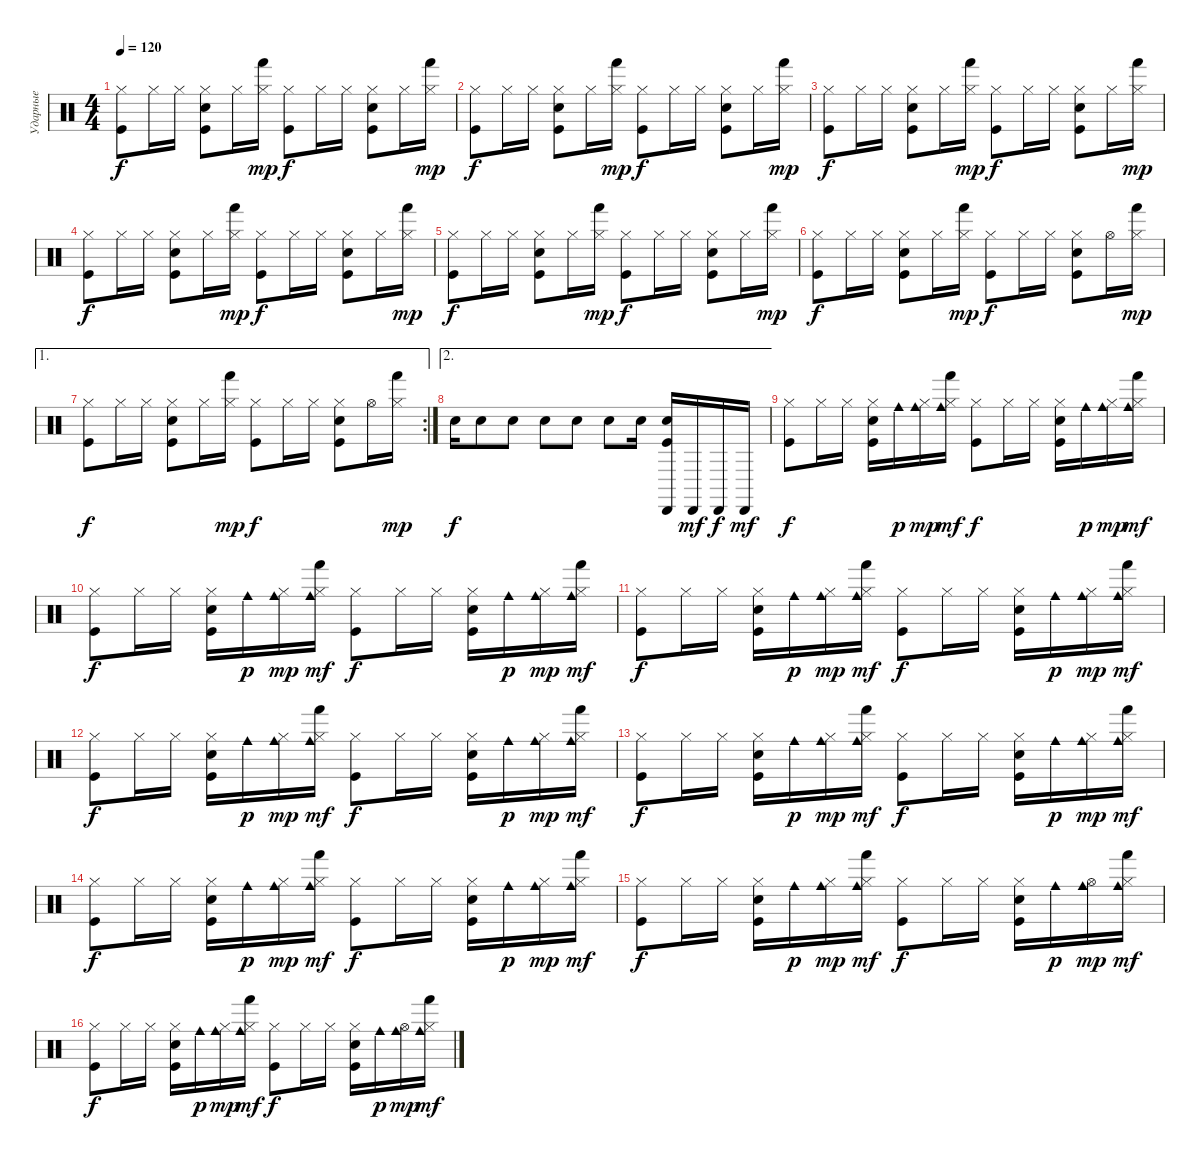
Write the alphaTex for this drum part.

\track ("Ударные" "Ударные") {instrument percussion}
\staff {score}
\articulation defaults
\ts (4 4)
\tempo 120
\clef neutral
\ks c
("Hi-Hat (closed)" "Kick (hit)").8{dy f} "Hi-Hat (closed)".16 "Hi-Hat (closed)".16 ("Hi-Hat (closed)" "Snare (hit) 2" "Kick (hit)").8 "Hi-Hat (closed)".16 ("Hi-Hat (closed)" "Hand (hit)").16{dy mp} ("Hi-Hat (closed)" "Kick (hit)").8{dy f} "Hi-Hat (closed)".16 "Hi-Hat (closed)".16 ("Hi-Hat (closed)" "Snare (hit) 2" "Kick (hit)").8 "Hi-Hat (closed)".16 ("Hi-Hat (closed)" "Hand (hit)").16{dy mp} |
("Hi-Hat (closed)" "Kick (hit)").8{dy f} "Hi-Hat (closed)".16 "Hi-Hat (closed)".16 ("Hi-Hat (closed)" "Snare (hit) 2" "Kick (hit)").8 "Hi-Hat (closed)".16 ("Hi-Hat (closed)" "Hand (hit)").16{dy mp} ("Hi-Hat (closed)" "Kick (hit)").8{dy f} "Hi-Hat (closed)".16 "Hi-Hat (closed)".16 ("Hi-Hat (closed)" "Snare (hit) 2" "Kick (hit)").8 "Hi-Hat (closed)".16 ("Hi-Hat (closed)" "Hand (hit)").16{dy mp} |
("Hi-Hat (closed)" "Kick (hit)").8{dy f} "Hi-Hat (closed)".16 "Hi-Hat (closed)".16 ("Hi-Hat (closed)" "Snare (hit) 2" "Kick (hit)").8 "Hi-Hat (closed)".16 ("Hi-Hat (closed)" "Hand (hit)").16{dy mp} ("Hi-Hat (closed)" "Kick (hit)").8{dy f} "Hi-Hat (closed)".16 "Hi-Hat (closed)".16 ("Hi-Hat (closed)" "Snare (hit) 2" "Kick (hit)").8 "Hi-Hat (closed)".16 ("Hi-Hat (closed)" "Hand (hit)").16{dy mp} |
("Hi-Hat (closed)" "Kick (hit)").8{dy f} "Hi-Hat (closed)".16 "Hi-Hat (closed)".16 ("Hi-Hat (closed)" "Snare (hit) 2" "Kick (hit)").8 "Hi-Hat (closed)".16 ("Hi-Hat (closed)" "Hand (hit)").16{dy mp} ("Hi-Hat (closed)" "Kick (hit)").8{dy f} "Hi-Hat (closed)".16 "Hi-Hat (closed)".16 ("Hi-Hat (closed)" "Snare (hit) 2" "Kick (hit)").8 "Hi-Hat (closed)".16 ("Hi-Hat (closed)" "Hand (hit)").16{dy mp} |
("Hi-Hat (closed)" "Kick (hit)").8{dy f} "Hi-Hat (closed)".16 "Hi-Hat (closed)".16 ("Hi-Hat (closed)" "Snare (hit) 2" "Kick (hit)").8 "Hi-Hat (closed)".16 ("Hi-Hat (closed)" "Hand (hit)").16{dy mp} ("Hi-Hat (closed)" "Kick (hit)").8{dy f} "Hi-Hat (closed)".16 "Hi-Hat (closed)".16 ("Hi-Hat (closed)" "Snare (hit) 2" "Kick (hit)").8 "Hi-Hat (closed)".16 ("Hi-Hat (closed)" "Hand (hit)").16{dy mp} |
("Hi-Hat (closed)" "Kick (hit)").8{dy f} "Hi-Hat (closed)".16 "Hi-Hat (closed)".16 ("Hi-Hat (closed)" "Snare (hit) 2" "Kick (hit)").8 "Hi-Hat (closed)".16 ("Hi-Hat (closed)" "Hand (hit)").16{dy mp} ("Hi-Hat (closed)" "Kick (hit)").8{dy f} "Hi-Hat (closed)".16 "Hi-Hat (closed)".16 ("Hi-Hat (closed)" "Snare (hit) 2" "Kick (hit)").8 "Hi-Hat (open)".16 ("Hi-Hat (closed)" "Hand (hit)").16{dy mp} |
\ae 1
\rc 2
("Hi-Hat (closed)" "Kick (hit)").8{dy f} "Hi-Hat (closed)".16 "Hi-Hat (closed)".16 ("Hi-Hat (closed)" "Snare (hit) 2" "Kick (hit)").8 "Hi-Hat (closed)".16 ("Hi-Hat (closed)" "Hand (hit)").16{dy mp} ("Hi-Hat (closed)" "Kick (hit)").8{dy f} "Hi-Hat (closed)".16 "Hi-Hat (closed)".16 ("Hi-Hat (closed)" "Snare (hit) 2" "Kick (hit)").8 "Hi-Hat (open)".16 ("Hi-Hat (closed)" "Hand (hit)").16{dy mp} |
\ae 2 "Snare (hit) 2".16{dy f} "Snare (hit) 2".8 "Snare (hit) 2".8 "Snare (hit) 2".8 "Snare (hit) 2".8 "Snare (hit) 2".8 "Snare (hit) 2".16
("Cabasa (hit)" "Snare (hit) 2" "Kick (hit)").16 "Cabasa (hit)".16{dy mf} "Cabasa (hit)".16{dy f} "Cabasa (hit)".16{dy mf} |
("Hi-Hat (closed)" "Kick (hit)").8{dy f} "Hi-Hat (closed)".16 "Hi-Hat (closed)".16 ("Hi-Hat (closed)" "Snare (hit) 2" "Kick (hit)").16 "Cowbell medium (hit)".16{dy p} ("Hi-Hat (closed)" "Cowbell medium (hit)").16{dy mp} ("Hi-Hat (closed)" "Hand (hit)" "Cowbell medium (hit)").16{dy mf} ("Hi-Hat (closed)" "Kick (hit)").8{dy f} "Hi-Hat (closed)".16 "Hi-Hat (closed)".16 ("Hi-Hat (closed)" "Snare (hit) 2" "Kick (hit)").16 "Cowbell medium (hit)".16{dy p} ("Hi-Hat (closed)" "Cowbell medium (hit)").16{dy mp} ("Hi-Hat (closed)" "Hand (hit)" "Cowbell medium (hit)").16{dy mf} |
("Hi-Hat (closed)" "Kick (hit)").8{dy f} "Hi-Hat (closed)".16 "Hi-Hat (closed)".16 ("Hi-Hat (closed)" "Snare (hit) 2" "Kick (hit)").16 "Cowbell medium (hit)".16{dy p} ("Hi-Hat (closed)" "Cowbell medium (hit)").16{dy mp} ("Hi-Hat (closed)" "Hand (hit)" "Cowbell medium (hit)").16{dy mf} ("Hi-Hat (closed)" "Kick (hit)").8{dy f} "Hi-Hat (closed)".16 "Hi-Hat (closed)".16 ("Hi-Hat (closed)" "Snare (hit) 2" "Kick (hit)").16 "Cowbell medium (hit)".16{dy p} ("Hi-Hat (closed)" "Cowbell medium (hit)").16{dy mp} ("Hi-Hat (closed)" "Hand (hit)" "Cowbell medium (hit)").16{dy mf} |
("Hi-Hat (closed)" "Kick (hit)").8{dy f} "Hi-Hat (closed)".16 "Hi-Hat (closed)".16 ("Hi-Hat (closed)" "Snare (hit) 2" "Kick (hit)").16 "Cowbell medium (hit)".16{dy p} ("Hi-Hat (closed)" "Cowbell medium (hit)").16{dy mp} ("Hi-Hat (closed)" "Hand (hit)" "Cowbell medium (hit)").16{dy mf} ("Hi-Hat (closed)" "Kick (hit)").8{dy f} "Hi-Hat (closed)".16 "Hi-Hat (closed)".16 ("Hi-Hat (closed)" "Snare (hit) 2" "Kick (hit)").16 "Cowbell medium (hit)".16{dy p} ("Hi-Hat (closed)" "Cowbell medium (hit)").16{dy mp} ("Hi-Hat (closed)" "Hand (hit)" "Cowbell medium (hit)").16{dy mf} |
("Hi-Hat (closed)" "Kick (hit)").8{dy f} "Hi-Hat (closed)".16 "Hi-Hat (closed)".16 ("Hi-Hat (closed)" "Snare (hit) 2" "Kick (hit)").16 "Cowbell medium (hit)".16{dy p} ("Hi-Hat (closed)" "Cowbell medium (hit)").16{dy mp} ("Hi-Hat (closed)" "Hand (hit)" "Cowbell medium (hit)").16{dy mf} ("Hi-Hat (closed)" "Kick (hit)").8{dy f} "Hi-Hat (closed)".16 "Hi-Hat (closed)".16 ("Hi-Hat (closed)" "Snare (hit) 2" "Kick (hit)").16 "Cowbell medium (hit)".16{dy p} ("Hi-Hat (closed)" "Cowbell medium (hit)").16{dy mp} ("Hi-Hat (closed)" "Hand (hit)" "Cowbell medium (hit)").16{dy mf} |
("Hi-Hat (closed)" "Kick (hit)").8{dy f} "Hi-Hat (closed)".16 "Hi-Hat (closed)".16 ("Hi-Hat (closed)" "Snare (hit) 2" "Kick (hit)").16 "Cowbell medium (hit)".16{dy p} ("Hi-Hat (closed)" "Cowbell medium (hit)").16{dy mp} ("Hi-Hat (closed)" "Hand (hit)" "Cowbell medium (hit)").16{dy mf} ("Hi-Hat (closed)" "Kick (hit)").8{dy f} "Hi-Hat (closed)".16 "Hi-Hat (closed)".16 ("Hi-Hat (closed)" "Snare (hit) 2" "Kick (hit)").16 "Cowbell medium (hit)".16{dy p} ("Hi-Hat (closed)" "Cowbell medium (hit)").16{dy mp} ("Hi-Hat (closed)" "Hand (hit)" "Cowbell medium (hit)").16{dy mf} |
("Hi-Hat (closed)" "Kick (hit)").8{dy f} "Hi-Hat (closed)".16 "Hi-Hat (closed)".16 ("Hi-Hat (closed)" "Snare (hit) 2" "Kick (hit)").16 "Cowbell medium (hit)".16{dy p} ("Hi-Hat (closed)" "Cowbell medium (hit)").16{dy mp} ("Hi-Hat (closed)" "Hand (hit)" "Cowbell medium (hit)").16{dy mf} ("Hi-Hat (closed)" "Kick (hit)").8{dy f} "Hi-Hat (closed)".16 "Hi-Hat (closed)".16 ("Hi-Hat (closed)" "Snare (hit) 2" "Kick (hit)").16 "Cowbell medium (hit)".16{dy p} ("Hi-Hat (closed)" "Cowbell medium (hit)").16{dy mp} ("Hi-Hat (closed)" "Hand (hit)" "Cowbell medium (hit)").16{dy mf} |
("Hi-Hat (closed)" "Kick (hit)").8{dy f} "Hi-Hat (closed)".16 "Hi-Hat (closed)".16 ("Hi-Hat (closed)" "Snare (hit) 2" "Kick (hit)").16 "Cowbell medium (hit)".16{dy p} ("Hi-Hat (closed)" "Cowbell medium (hit)").16{dy mp} ("Hi-Hat (closed)" "Hand (hit)" "Cowbell medium (hit)").16{dy mf} ("Hi-Hat (closed)" "Kick (hit)").8{dy f} "Hi-Hat (closed)".16 "Hi-Hat (closed)".16 ("Hi-Hat (closed)" "Snare (hit) 2" "Kick (hit)").16 "Cowbell medium (hit)".16{dy p} ("Hi-Hat (open)" "Cowbell medium (hit)").16{dy mp} ("Hi-Hat (closed)" "Hand (hit)" "Cowbell medium (hit)").16{dy mf} |
("Hi-Hat (closed)" "Kick (hit)").8{dy f} "Hi-Hat (closed)".16 "Hi-Hat (closed)".16 ("Hi-Hat (closed)" "Snare (hit) 2" "Kick (hit)").16 "Cowbell medium (hit)".16{dy p} ("Hi-Hat (closed)" "Cowbell medium (hit)").16{dy mp} ("Hi-Hat (closed)" "Hand (hit)" "Cowbell medium (hit)").16{dy mf} ("Hi-Hat (closed)" "Kick (hit)").8{dy f} "Hi-Hat (closed)".16 "Hi-Hat (closed)".16 ("Hi-Hat (closed)" "Snare (hit) 2" "Kick (hit)").16 "Cowbell medium (hit)".16{dy p} ("Hi-Hat (open)" "Cowbell medium (hit)").16{dy mp} ("Hi-Hat (closed)" "Hand (hit)" "Cowbell medium (hit)").16{dy mf}
